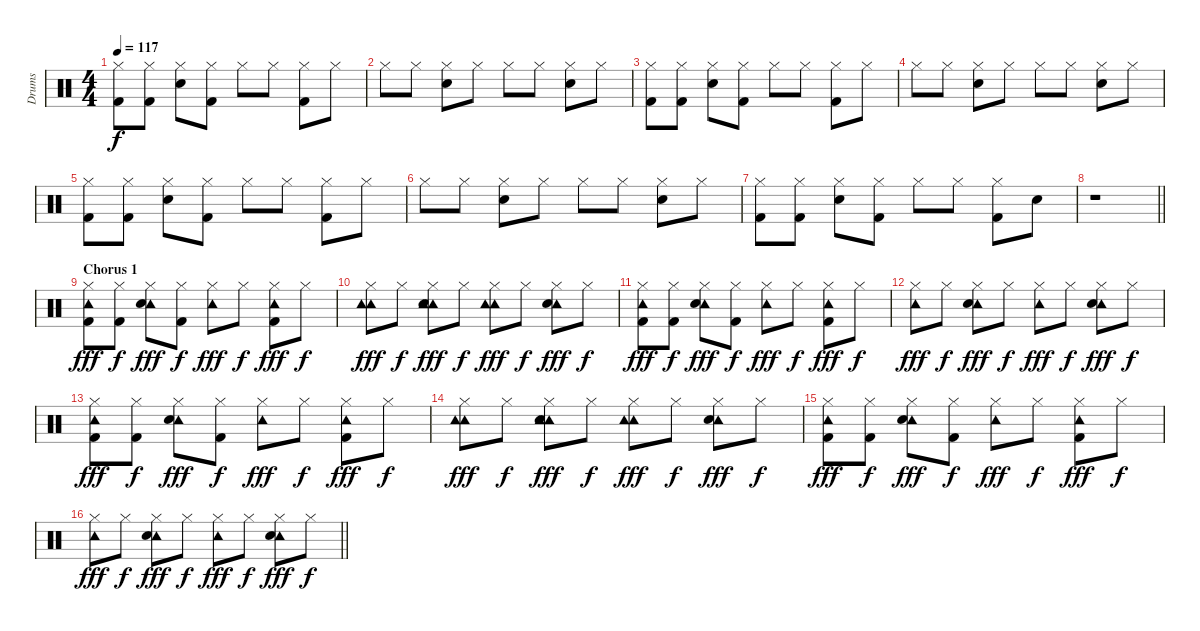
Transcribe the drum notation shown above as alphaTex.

\track ("Drums" "Drums") {instrument percussion}
\staff {score}
\articulation defaults
\ts (4 4)
\tempo 117
\clef neutral
\ks c
("Hi-Hat (closed)" "Kick (hit) 2").8{dy f} ("Hi-Hat (closed)" "Kick (hit) 2").8 ("Hi-Hat (closed)" "Snare (hit) 2").8 ("Hi-Hat (closed)" "Kick (hit) 2").8 "Hi-Hat (closed)".8 "Hi-Hat (closed)".8 ("Hi-Hat (closed)" "Kick (hit) 2").8 "Hi-Hat (closed)".8 |
"Hi-Hat (closed)".8 "Hi-Hat (closed)".8 ("Hi-Hat (closed)" "Snare (hit) 2").8 "Hi-Hat (closed)".8 "Hi-Hat (closed)".8 "Hi-Hat (closed)".8 ("Hi-Hat (closed)" "Snare (hit) 2").8 "Hi-Hat (closed)".8 |
("Hi-Hat (closed)" "Kick (hit) 2").8 ("Hi-Hat (closed)" "Kick (hit) 2").8 ("Hi-Hat (closed)" "Snare (hit) 2").8 ("Hi-Hat (closed)" "Kick (hit) 2").8 "Hi-Hat (closed)".8 "Hi-Hat (closed)".8 ("Hi-Hat (closed)" "Kick (hit) 2").8 "Hi-Hat (closed)".8 |
"Hi-Hat (closed)".8 "Hi-Hat (closed)".8 ("Hi-Hat (closed)" "Snare (hit) 2").8 "Hi-Hat (closed)".8 "Hi-Hat (closed)".8 "Hi-Hat (closed)".8 ("Hi-Hat (closed)" "Snare (hit) 2").8 "Hi-Hat (closed)".8 |
("Hi-Hat (closed)" "Kick (hit) 2").8 ("Hi-Hat (closed)" "Kick (hit) 2").8 ("Hi-Hat (closed)" "Snare (hit) 2").8 ("Hi-Hat (closed)" "Kick (hit) 2").8 "Hi-Hat (closed)".8 "Hi-Hat (closed)".8 ("Hi-Hat (closed)" "Kick (hit) 2").8 "Hi-Hat (closed)".8 |
"Hi-Hat (closed)".8 "Hi-Hat (closed)".8 ("Hi-Hat (closed)" "Snare (hit) 2").8 "Hi-Hat (closed)".8 "Hi-Hat (closed)".8 "Hi-Hat (closed)".8 ("Hi-Hat (closed)" "Snare (hit) 2").8 "Hi-Hat (closed)".8 |
("Hi-Hat (closed)" "Kick (hit) 2").8 ("Hi-Hat (closed)" "Kick (hit) 2").8 ("Hi-Hat (closed)" "Snare (hit) 2").8 ("Hi-Hat (closed)" "Kick (hit) 2").8 "Hi-Hat (closed)".8 "Hi-Hat (closed)".8 ("Hi-Hat (closed)" "Kick (hit) 2").8 "Snare (hit)".8 |
\barLineRight lightlight
r.1 |
\section ("" "Chorus 1")
("Tambourine (hit)" "Hi-Hat (closed)" "Kick (hit) 2").8{dy fff} ("Hi-Hat (closed)" "Kick (hit) 2").8{dy f} ("Tambourine (hit)" "Hi-Hat (closed)" "Snare (hit) 2").8{dy fff} ("Hi-Hat (closed)" "Kick (hit) 2").8{dy f} ("Tambourine (hit)" "Hi-Hat (closed)").8{dy fff} "Hi-Hat (closed)".8{dy f} ("Tambourine (hit)" "Hi-Hat (closed)" "Kick (hit) 2").8{dy fff} "Hi-Hat (closed)".8{dy f} |
("Tambourine (hit)" "Tambourine (hit)" "Hi-Hat (closed)").8{dy fff} "Hi-Hat (closed)".8{dy f} ("Tambourine (hit)" "Tambourine (hit)" "Hi-Hat (closed)" "Snare (hit) 2").8{dy fff} "Hi-Hat (closed)".8{dy f} ("Tambourine (hit)" "Tambourine (hit)" "Hi-Hat (closed)").8{dy fff} "Hi-Hat (closed)".8{dy f} ("Tambourine (hit)" "Hi-Hat (closed)" "Snare (hit) 2").8{dy fff} "Hi-Hat (closed)".8{dy f} |
("Tambourine (hit)" "Hi-Hat (closed)" "Kick (hit) 2").8{dy fff} ("Hi-Hat (closed)" "Kick (hit) 2").8{dy f} ("Tambourine (hit)" "Hi-Hat (closed)" "Snare (hit) 2").8{dy fff} ("Hi-Hat (closed)" "Kick (hit) 2").8{dy f} ("Tambourine (hit)" "Hi-Hat (closed)").8{dy fff} "Hi-Hat (closed)".8{dy f} ("Tambourine (hit)" "Hi-Hat (closed)" "Kick (hit) 2").8{dy fff} "Hi-Hat (closed)".8{dy f} |
("Tambourine (hit)" "Hi-Hat (closed)").8{dy fff} "Hi-Hat (closed)".8{dy f} ("Tambourine (hit)" "Hi-Hat (closed)" "Snare (hit) 2").8{dy fff} "Hi-Hat (closed)".8{dy f} ("Tambourine (hit)" "Hi-Hat (closed)").8{dy fff} "Hi-Hat (closed)".8{dy f} ("Tambourine (hit)" "Hi-Hat (closed)" "Snare (hit) 2").8{dy fff} "Hi-Hat (closed)".8{dy f} |
("Tambourine (hit)" "Hi-Hat (closed)" "Kick (hit) 2").8{dy fff} ("Hi-Hat (closed)" "Kick (hit) 2").8{dy f} ("Tambourine (hit)" "Hi-Hat (closed)" "Snare (hit) 2").8{dy fff} ("Hi-Hat (closed)" "Kick (hit) 2").8{dy f} ("Tambourine (hit)" "Hi-Hat (closed)").8{dy fff} "Hi-Hat (closed)".8{dy f} ("Tambourine (hit)" "Hi-Hat (closed)" "Kick (hit) 2").8{dy fff} "Hi-Hat (closed)".8{dy f} |
("Tambourine (hit)" "Tambourine (hit)" "Hi-Hat (closed)").8{dy fff} "Hi-Hat (closed)".8{dy f} ("Tambourine (hit)" "Tambourine (hit)" "Hi-Hat (closed)" "Snare (hit) 2").8{dy fff} "Hi-Hat (closed)".8{dy f} ("Tambourine (hit)" "Tambourine (hit)" "Hi-Hat (closed)").8{dy fff} "Hi-Hat (closed)".8{dy f} ("Tambourine (hit)" "Hi-Hat (closed)" "Snare (hit) 2").8{dy fff} "Hi-Hat (closed)".8{dy f} |
("Tambourine (hit)" "Hi-Hat (closed)" "Kick (hit) 2").8{dy fff} ("Hi-Hat (closed)" "Kick (hit) 2").8{dy f} ("Tambourine (hit)" "Hi-Hat (closed)" "Snare (hit) 2").8{dy fff} ("Hi-Hat (closed)" "Kick (hit) 2").8{dy f} ("Tambourine (hit)" "Hi-Hat (closed)").8{dy fff} "Hi-Hat (closed)".8{dy f} ("Tambourine (hit)" "Hi-Hat (closed)" "Kick (hit) 2").8{dy fff} "Hi-Hat (closed)".8{dy f} |
\barLineRight lightlight
("Tambourine (hit)" "Hi-Hat (closed)").8{dy fff} "Hi-Hat (closed)".8{dy f} ("Tambourine (hit)" "Hi-Hat (closed)" "Snare (hit) 2").8{dy fff} "Hi-Hat (closed)".8{dy f} ("Tambourine (hit)" "Hi-Hat (closed)").8{dy fff} "Hi-Hat (closed)".8{dy f} ("Tambourine (hit)" "Hi-Hat (closed)" "Snare (hit) 2").8{dy fff} "Hi-Hat (closed)".8{dy f}
